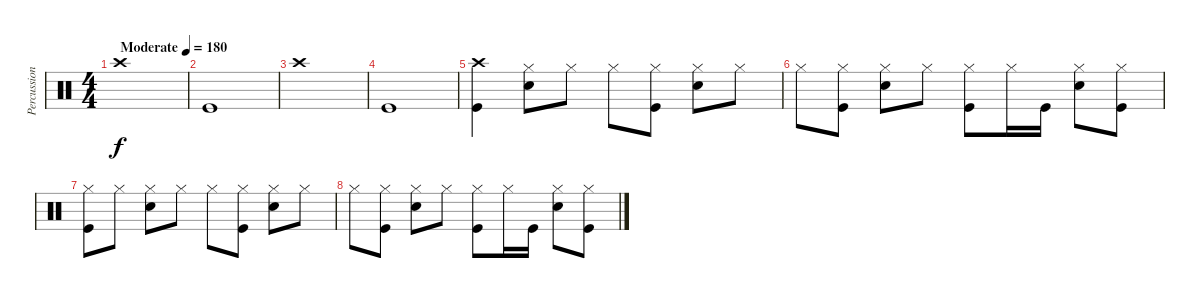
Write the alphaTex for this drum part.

\track ("Percussion" "Percussion") {instrument percussion}
\staff {score}
\articulation defaults
\ts (4 4)
\tempo (180 "Moderate")
\clef neutral
\ks c "Crash high (hit)".1{dy f}
|
"Kick (hit)".1 |
"Crash high (hit)".1 |
"Kick (hit)".1 |
("Crash high (hit)" "Kick (hit)").4 ("Snare (hit) 2" "Hi-Hat (closed)").8 "Hi-Hat (closed)".8 "Hi-Hat (closed)".8 ("Hi-Hat (closed)" "Kick (hit)").8 ("Snare (hit) 2" "Hi-Hat (closed)").8 "Hi-Hat (closed)".8 |
"Hi-Hat (closed)".8 ("Hi-Hat (closed)" "Kick (hit)").8 ("Snare (hit) 2" "Hi-Hat (closed)").8 "Hi-Hat (closed)".8 ("Hi-Hat (closed)" "Kick (hit)").8 "Hi-Hat (closed)".16 "Kick (hit)".16 ("Snare (hit) 2" "Hi-Hat (closed)").8 ("Hi-Hat (closed)" "Kick (hit)").8 |
("Hi-Hat (closed)" "Kick (hit)").8 "Hi-Hat (closed)".8 ("Snare (hit) 2" "Hi-Hat (closed)").8 "Hi-Hat (closed)".8 "Hi-Hat (closed)".8 ("Hi-Hat (closed)" "Kick (hit)").8 ("Snare (hit) 2" "Hi-Hat (closed)").8 "Hi-Hat (closed)".8 |
"Hi-Hat (closed)".8 ("Hi-Hat (closed)" "Kick (hit)").8 ("Snare (hit) 2" "Hi-Hat (closed)").8 "Hi-Hat (closed)".8 ("Hi-Hat (closed)" "Kick (hit)").8 "Hi-Hat (closed)".16 "Kick (hit)".16 ("Snare (hit) 2" "Hi-Hat (closed)").8 ("Hi-Hat (closed)" "Kick (hit)").8
